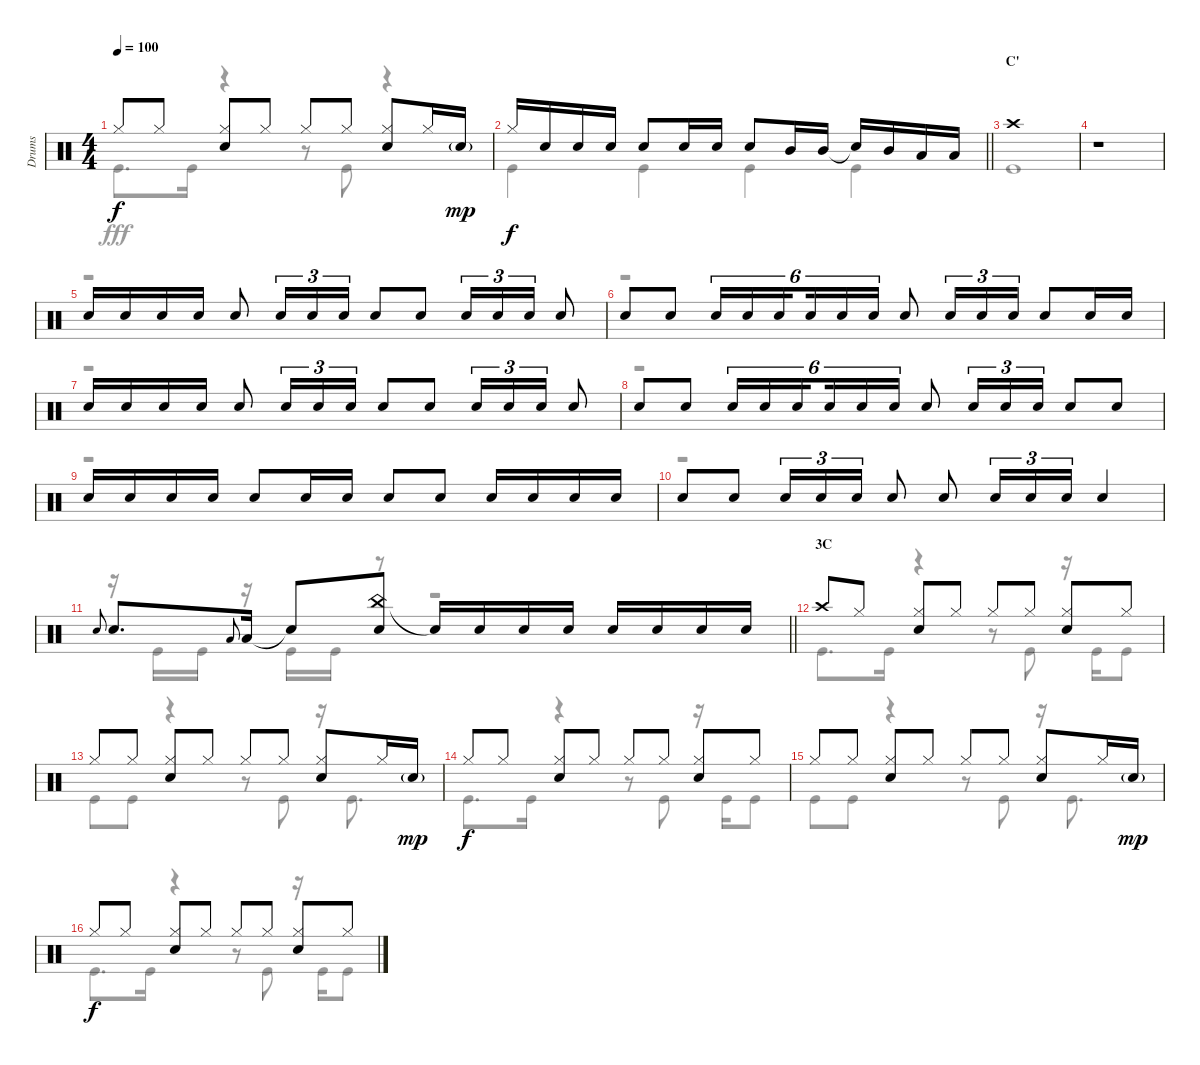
\track ("Drums" "Drums") {instrument percussion}
\staff {score}
\articulation defaults
\voice
\ts (4 4)
\tempo 100
\clef neutral
\ks c "Hi-Hat (closed)".8{dy f} "Hi-Hat (closed)".8
("Hi-Hat (closed)" "Snare (hit) 2").8 "Hi-Hat (closed)".8 "Hi-Hat (closed)".8 "Hi-Hat (closed)".8 ("Hi-Hat (closed)" "Snare (hit) 2").8 "Hi-Hat (closed)".16 "Snare (hit) 2"{g}.16{dy mp} |
\barLineRight lightlight "Hi-Hat (closed)".16{dy f} "Snare (hit) 2".16 "Snare (hit) 2".16 "Snare (hit) 2".16 "Snare (hit) 2".8 "Snare (hit) 2".16 "Snare (hit) 2".16 "Snare (hit) 2".8 "Mid Tom (hit)".16 "Mid Tom (hit)".16 "Snare (hit)"{t}.16 "Mid Tom (hit)".16 "Low Tom (hit)".16 "Low Tom (hit)".16
|
\section ("" "C'")
"Crash high (hit)".1 |
r.1{volume 0} |
"Snare (hit) 2".16{volume 13} "Snare (hit) 2".16 "Snare (hit) 2".16 "Snare (hit) 2".16 "Snare (hit) 2".8 "Snare (hit) 2".16{tu (3 2)} "Snare (hit) 2".16{tu (3 2)} "Snare (hit) 2".16{tu (3 2)} "Snare (hit) 2".8 "Snare (hit) 2".8 "Snare (hit) 2".16{tu (3 2)} "Snare (hit) 2".16{tu (3 2)} "Snare (hit) 2".16{tu (3 2)} "Snare (hit) 2".8 |
"Snare (hit) 2".8 "Snare (hit) 2".8 "Snare (hit) 2".16{tu (6 4)} "Snare (hit) 2".16{tu (6 4)} "Snare (hit) 2".16{tu (6 4) beam splitsecondary} "Snare (hit) 2".16{tu (6 4)} "Snare (hit) 2".16{tu (6 4)} "Snare (hit) 2".16{tu (6 4)} "Snare (hit) 2".8 "Snare (hit) 2".16{tu (3 2)} "Snare (hit) 2".16{tu (3 2)} "Snare (hit) 2".16{tu (3 2)} "Snare (hit) 2".8 "Snare (hit) 2".16 "Snare (hit) 2".16 |
"Snare (hit) 2".16 "Snare (hit) 2".16 "Snare (hit) 2".16 "Snare (hit) 2".16 "Snare (hit) 2".8 "Snare (hit) 2".16{tu (3 2)} "Snare (hit) 2".16{tu (3 2)} "Snare (hit) 2".16{tu (3 2)} "Snare (hit) 2".8 "Snare (hit) 2".8 "Snare (hit) 2".16{tu (3 2)} "Snare (hit) 2".16{tu (3 2)} "Snare (hit) 2".16{tu (3 2)} "Snare (hit) 2".8 |
"Snare (hit) 2".8 "Snare (hit) 2".8 "Snare (hit) 2".16{tu (6 4)} "Snare (hit) 2".16{tu (6 4)} "Snare (hit) 2".16{tu (6 4) beam splitsecondary} "Snare (hit) 2".16{tu (6 4)} "Snare (hit) 2".16{tu (6 4)} "Snare (hit) 2".16{tu (6 4)} "Snare (hit) 2".8 "Snare (hit) 2".16{tu (3 2)} "Snare (hit) 2".16{tu (3 2)} "Snare (hit) 2".16{tu (3 2)} "Snare (hit) 2".8 "Snare (hit) 2".8 |
"Snare (hit) 2".16 "Snare (hit) 2".16 "Snare (hit) 2".16 "Snare (hit) 2".16 "Snare (hit) 2".8 "Snare (hit) 2".16 "Snare (hit) 2".16 "Snare (hit) 2".8 "Snare (hit) 2".8 "Snare (hit) 2".16 "Snare (hit) 2".16 "Snare (hit) 2".16 "Snare (hit) 2".16 |
"Snare (hit) 2".8 "Snare (hit) 2".8 "Snare (hit) 2".16{tu (3 2)} "Snare (hit) 2".16{tu (3 2)} "Snare (hit) 2".16{tu (3 2)} "Snare (hit) 2".8 "Snare (hit) 2".8 "Snare (hit) 2".16{tu (3 2)} "Snare (hit) 2".16{tu (3 2)} "Snare (hit) 2".16{tu (3 2)} "Snare (hit) 2".4 |
\barLineRight lightlight "Snare (hit) 2".8{gr onbeat} "Snare (hit) 2".8{d} "Low Tom (hit)".8{gr onbeat} "Low Tom (hit)".16 "Snare (hit)"{t}.8
("China (hit)" "Snare (hit) 2").8 "Snare (hit)"{t}.16 "Snare (hit) 2".16 "Snare (hit) 2".16 "Snare (hit) 2".16 "Snare (hit) 2".16 "Snare (hit) 2".16 "Snare (hit) 2".16 "Snare (hit) 2".16 |
\section ("" "3C")
"Crash high (hit)".8 "Hi-Hat (closed)".8 ("Hi-Hat (closed)" "Snare (hit) 2").8 "Hi-Hat (closed)".8 "Hi-Hat (closed)".8 "Hi-Hat (closed)".8 ("Hi-Hat (closed)" "Snare (hit) 2").8 "Hi-Hat (closed)".8 |
"Hi-Hat (closed)".8 "Hi-Hat (closed)".8 ("Hi-Hat (closed)" "Snare (hit) 2").8 "Hi-Hat (closed)".8 "Hi-Hat (closed)".8 "Hi-Hat (closed)".8 ("Hi-Hat (closed)" "Snare (hit) 2").8 "Hi-Hat (closed)".16 "Snare (hit) 2"{g}.16{dy mp} |
"Hi-Hat (closed)".8{dy f} "Hi-Hat (closed)".8 ("Hi-Hat (closed)" "Snare (hit) 2").8 "Hi-Hat (closed)".8 "Hi-Hat (closed)".8 "Hi-Hat (closed)".8 ("Hi-Hat (closed)" "Snare (hit) 2").8 "Hi-Hat (closed)".8 |
"Hi-Hat (closed)".8 "Hi-Hat (closed)".8 ("Hi-Hat (closed)" "Snare (hit) 2").8 "Hi-Hat (closed)".8 "Hi-Hat (closed)".8 "Hi-Hat (closed)".8 ("Hi-Hat (closed)" "Snare (hit) 2").8 "Hi-Hat (closed)".16 "Snare (hit) 2"{g}.16{dy mp} |
"Hi-Hat (closed)".8{dy f} "Hi-Hat (closed)".8 ("Hi-Hat (closed)" "Snare (hit) 2").8 "Hi-Hat (closed)".8 "Hi-Hat (closed)".8 "Hi-Hat (closed)".8 ("Hi-Hat (closed)" "Snare (hit) 2").8 "Hi-Hat (closed)".8
\voice
\clef neutral
\ottava regular
\simile none
\ks c "Kick (hit)".8{d dy fff} "Kick (hit)".16
r.4 r.8 "Kick (hit)".8 r.4 |
\barLineRight lightlight "Kick (hit)".4 "Kick (hit)".4 "Kick (hit)".4 "Kick (hit)".4
|
"Kick (hit)".1 |
r.1 |
r.1 |
r.1 |
r.1 |
r.1 |
r.1 |
r.1 |
\barLineRight lightlight
r.16 "Kick (hit)".16 "Kick (hit)".16 r.16 "Kick (hit)".16 "Kick (hit)".16 r.8 r.2 |
"Kick (hit)".8{d} "Kick (hit)".16 r.4 r.8 "Kick (hit)".8 r.16 "Kick (hit)".16 "Kick (hit)".8 |
"Kick (hit)".8 "Kick (hit)".8 r.4 r.8 "Kick (hit)".8 r.16 "Kick (hit)".8{d} |
"Kick (hit)".8{d} "Kick (hit)".16 r.4 r.8 "Kick (hit)".8 r.16 "Kick (hit)".16 "Kick (hit)".8 |
"Kick (hit)".8 "Kick (hit)".8 r.4 r.8 "Kick (hit)".8 r.16 "Kick (hit)".8{d} |
"Kick (hit)".8{d} "Kick (hit)".16 r.4 r.8 "Kick (hit)".8 r.16 "Kick (hit)".16 "Kick (hit)".8
